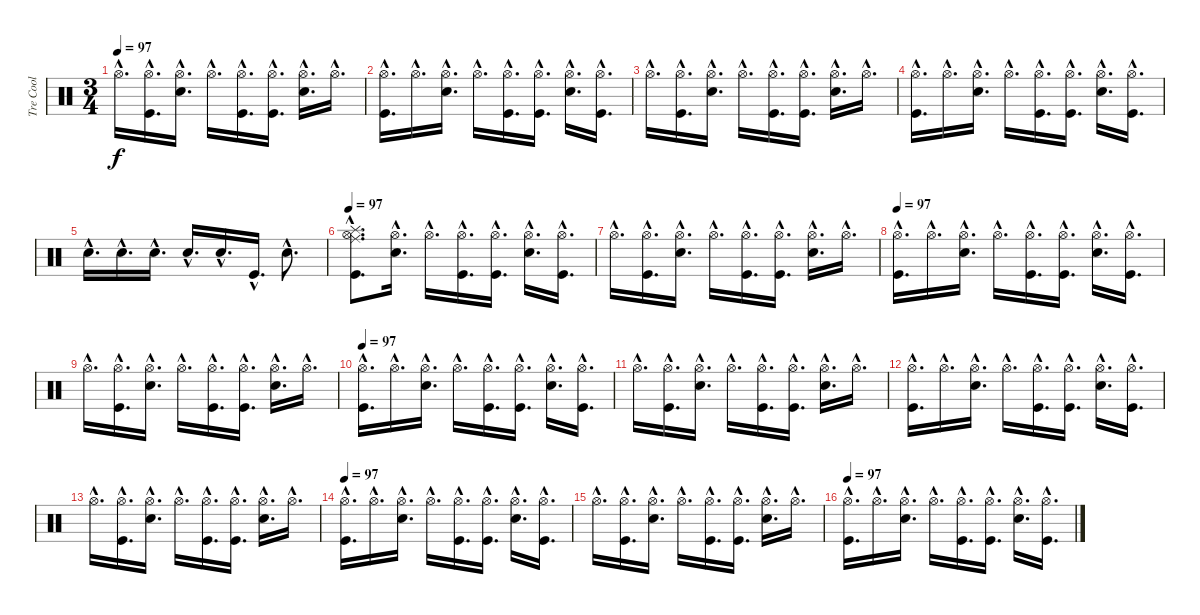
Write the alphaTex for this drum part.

\track ("Tre Cool" "Tre Cool") {instrument percussion}
\staff {score}
\articulation defaults
\ts (3 4)
\tempo 97
\clef neutral
\ks c "Hi-Hat (open)"{hac}.16{d dy f}
("Kick (hit)"{hac} "Hi-Hat (open)"{hac}).16{d} ("Snare (hit) 2"{hac} "Hi-Hat (open)"{hac}).16{d} "Hi-Hat (open)"{hac}.16{d} ("Kick (hit)"{hac} "Hi-Hat (open)"{hac}).16{d} ("Kick (hit)"{hac} "Hi-Hat (open)"{hac}).16{d} ("Snare (hit) 2"{hac} "Hi-Hat (open)"{hac}).16{d} "Hi-Hat (open)"{hac}.16{d} |
("Kick (hit)"{hac} "Hi-Hat (open)"{hac}).16{d} "Hi-Hat (open)"{hac}.16{d} ("Snare (hit) 2"{hac} "Hi-Hat (open)"{hac}).16{d} "Hi-Hat (open)"{hac}.16{d} ("Kick (hit)"{hac} "Hi-Hat (open)"{hac}).16{d} ("Kick (hit)"{hac} "Hi-Hat (open)"{hac}).16{d} ("Snare (hit) 2"{hac} "Hi-Hat (open)"{hac}).16{d} ("Kick (hit)"{hac} "Hi-Hat (open)"{hac}).16{d} |
"Hi-Hat (open)"{hac}.16{d} ("Kick (hit)"{hac} "Hi-Hat (open)"{hac}).16{d} ("Snare (hit) 2"{hac} "Hi-Hat (open)"{hac}).16{d} "Hi-Hat (open)"{hac}.16{d} ("Kick (hit)"{hac} "Hi-Hat (open)"{hac}).16{d} ("Kick (hit)"{hac} "Hi-Hat (open)"{hac}).16{d} ("Snare (hit) 2"{hac} "Hi-Hat (open)"{hac}).16{d} "Hi-Hat (open)"{hac}.16{d} |
("Kick (hit)"{hac} "Hi-Hat (open)"{hac}).16{d} "Hi-Hat (open)"{hac}.16{d} ("Snare (hit) 2"{hac} "Hi-Hat (open)"{hac}).16{d} "Hi-Hat (open)"{hac}.16{d} ("Kick (hit)"{hac} "Hi-Hat (open)"{hac}).16{d} ("Kick (hit)"{hac} "Hi-Hat (open)"{hac}).16{d} ("Snare (hit) 2"{hac} "Hi-Hat (open)"{hac}).16{d} ("Kick (hit)"{hac} "Hi-Hat (open)"{hac}).16{d} |
"Snare (hit) 2"{hac}.16{d} "Snare (hit) 2"{hac}.16{d} "Snare (hit) 2"{hac}.16{d} "Snare (hit) 2"{hac}.16{d} "Snare (hit) 2"{hac}.16{d} "Kick (hit)"{hac}.16{d} "Snare (hit) 2"{hac}.8{d} |
\tempo 97
("Kick (hit)"{hac} "Hi-Hat (open)"{hac} "Ride (middle)"{hac} "Splash (hit)"{hac}).8{d} ("Snare (hit) 2"{hac} "Hi-Hat (open)"{hac}).16{d} "Hi-Hat (open)"{hac}.16{d} ("Kick (hit)"{hac} "Hi-Hat (open)"{hac}).16{d} ("Kick (hit)"{hac} "Hi-Hat (open)"{hac}).16{d} ("Snare (hit) 2"{hac} "Hi-Hat (open)"{hac}).16{d} ("Kick (hit)"{hac} "Hi-Hat (open)"{hac}).16{d} |
"Hi-Hat (open)"{hac}.16{d} ("Kick (hit)"{hac} "Hi-Hat (open)"{hac}).16{d} ("Snare (hit) 2"{hac} "Hi-Hat (open)"{hac}).16{d} "Hi-Hat (open)"{hac}.16{d} ("Kick (hit)"{hac} "Hi-Hat (open)"{hac}).16{d} ("Kick (hit)"{hac} "Hi-Hat (open)"{hac}).16{d} ("Snare (hit) 2"{hac} "Hi-Hat (open)"{hac}).16{d} "Hi-Hat (open)"{hac}.16{d} |
\tempo 97
("Kick (hit)"{hac} "Hi-Hat (open)"{hac}).16{d} "Hi-Hat (open)"{hac}.16{d} ("Snare (hit) 2"{hac} "Hi-Hat (open)"{hac}).16{d} "Hi-Hat (open)"{hac}.16{d} ("Kick (hit)"{hac} "Hi-Hat (open)"{hac}).16{d} ("Kick (hit)"{hac} "Hi-Hat (open)"{hac}).16{d} ("Snare (hit) 2"{hac} "Hi-Hat (open)"{hac}).16{d} ("Kick (hit)"{hac} "Hi-Hat (open)"{hac}).16{d} |
"Hi-Hat (open)"{hac}.16{d} ("Kick (hit)"{hac} "Hi-Hat (open)"{hac}).16{d} ("Snare (hit) 2"{hac} "Hi-Hat (open)"{hac}).16{d} "Hi-Hat (open)"{hac}.16{d} ("Kick (hit)"{hac} "Hi-Hat (open)"{hac}).16{d} ("Kick (hit)"{hac} "Hi-Hat (open)"{hac}).16{d} ("Snare (hit) 2"{hac} "Hi-Hat (open)"{hac}).16{d} "Hi-Hat (open)"{hac}.16{d} |
\tempo 97
("Kick (hit)"{hac} "Hi-Hat (open)"{hac}).16{d} "Hi-Hat (open)"{hac}.16{d} ("Snare (hit) 2"{hac} "Hi-Hat (open)"{hac}).16{d} "Hi-Hat (open)"{hac}.16{d} ("Kick (hit)"{hac} "Hi-Hat (open)"{hac}).16{d} ("Kick (hit)"{hac} "Hi-Hat (open)"{hac}).16{d} ("Snare (hit) 2"{hac} "Hi-Hat (open)"{hac}).16{d} ("Kick (hit)"{hac} "Hi-Hat (open)"{hac}).16{d} |
"Hi-Hat (open)"{hac}.16{d} ("Kick (hit)"{hac} "Hi-Hat (open)"{hac}).16{d} ("Snare (hit) 2"{hac} "Hi-Hat (open)"{hac}).16{d} "Hi-Hat (open)"{hac}.16{d} ("Kick (hit)"{hac} "Hi-Hat (open)"{hac}).16{d} ("Kick (hit)"{hac} "Hi-Hat (open)"{hac}).16{d} ("Snare (hit) 2"{hac} "Hi-Hat (open)"{hac}).16{d} "Hi-Hat (open)"{hac}.16{d} |
("Kick (hit)"{hac} "Hi-Hat (open)"{hac}).16{d} "Hi-Hat (open)"{hac}.16{d} ("Snare (hit) 2"{hac} "Hi-Hat (open)"{hac}).16{d} "Hi-Hat (open)"{hac}.16{d} ("Kick (hit)"{hac} "Hi-Hat (open)"{hac}).16{d} ("Kick (hit)"{hac} "Hi-Hat (open)"{hac}).16{d} ("Snare (hit) 2"{hac} "Hi-Hat (open)"{hac}).16{d} ("Kick (hit)"{hac} "Hi-Hat (open)"{hac}).16{d} |
"Hi-Hat (open)"{hac}.16{d} ("Kick (hit)"{hac} "Hi-Hat (open)"{hac}).16{d} ("Snare (hit) 2"{hac} "Hi-Hat (open)"{hac}).16{d} "Hi-Hat (open)"{hac}.16{d} ("Kick (hit)"{hac} "Hi-Hat (open)"{hac}).16{d} ("Kick (hit)"{hac} "Hi-Hat (open)"{hac}).16{d} ("Snare (hit) 2"{hac} "Hi-Hat (open)"{hac}).16{d} "Hi-Hat (open)"{hac}.16{d} |
\tempo 97
("Kick (hit)"{hac} "Hi-Hat (open)"{hac}).16{d} "Hi-Hat (open)"{hac}.16{d} ("Snare (hit) 2"{hac} "Hi-Hat (open)"{hac}).16{d} "Hi-Hat (open)"{hac}.16{d} ("Kick (hit)"{hac} "Hi-Hat (open)"{hac}).16{d} ("Kick (hit)"{hac} "Hi-Hat (open)"{hac}).16{d} ("Snare (hit) 2"{hac} "Hi-Hat (open)"{hac}).16{d} ("Kick (hit)"{hac} "Hi-Hat (open)"{hac}).16{d} |
"Hi-Hat (open)"{hac}.16{d} ("Kick (hit)"{hac} "Hi-Hat (open)"{hac}).16{d} ("Snare (hit) 2"{hac} "Hi-Hat (open)"{hac}).16{d} "Hi-Hat (open)"{hac}.16{d} ("Kick (hit)"{hac} "Hi-Hat (open)"{hac}).16{d} ("Kick (hit)"{hac} "Hi-Hat (open)"{hac}).16{d} ("Snare (hit) 2"{hac} "Hi-Hat (open)"{hac}).16{d} "Hi-Hat (open)"{hac}.16{d} |
\tempo 97
("Kick (hit)"{hac} "Hi-Hat (open)"{hac}).16{d} "Hi-Hat (open)"{hac}.16{d} ("Snare (hit) 2"{hac} "Hi-Hat (open)"{hac}).16{d} "Hi-Hat (open)"{hac}.16{d} ("Kick (hit)"{hac} "Hi-Hat (open)"{hac}).16{d} ("Kick (hit)"{hac} "Hi-Hat (open)"{hac}).16{d} ("Snare (hit) 2"{hac} "Hi-Hat (open)"{hac}).16{d} ("Kick (hit)"{hac} "Hi-Hat (open)"{hac}).16{d}
